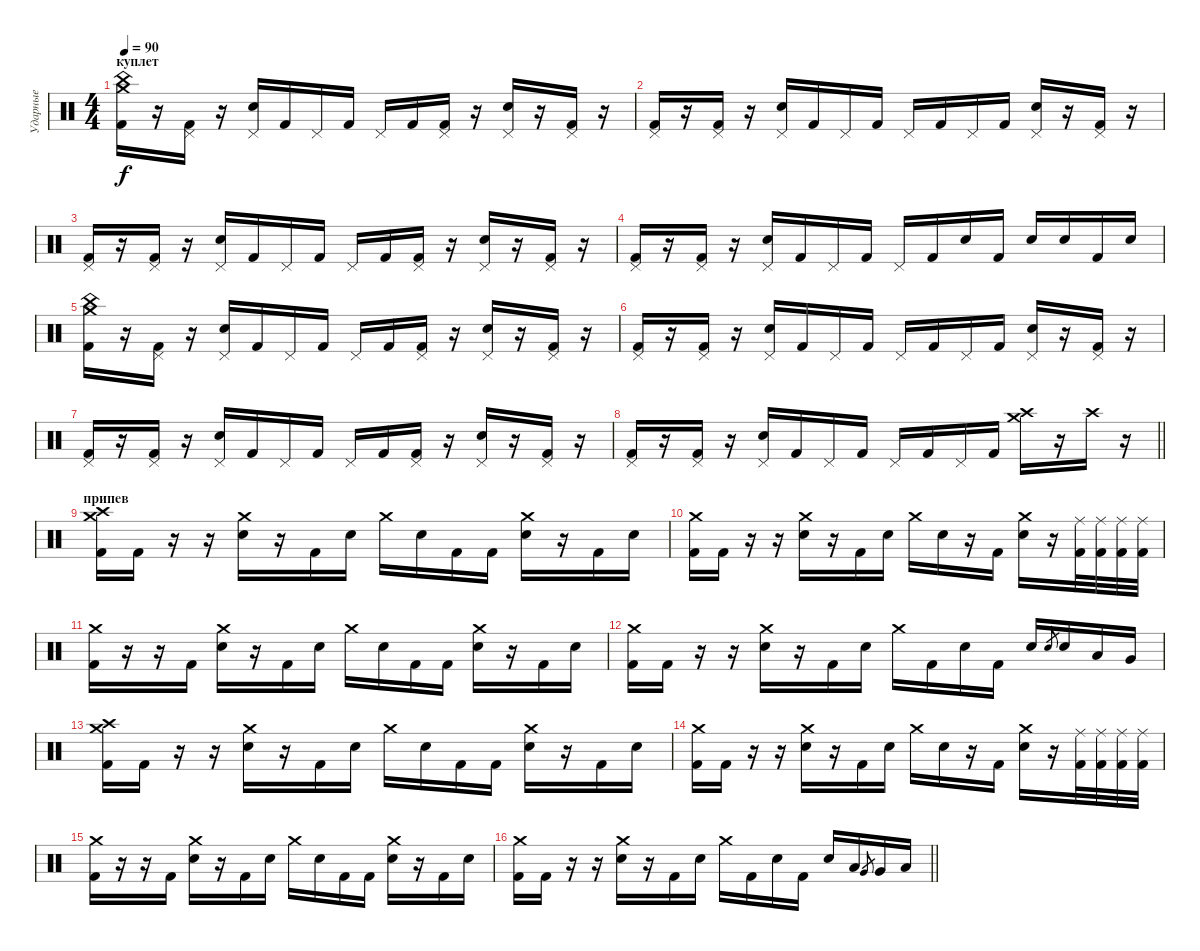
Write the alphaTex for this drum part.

\track ("Ударные" "Ударные") {instrument percussion}
\staff {score}
\articulation defaults
\ts (4 4)
\section ("" "куплет")
\tempo 90
\clef neutral
\ks c
("China (hit)" "Crash medium (hit)" "Kick (hit) 2").16{dy f} r.16 ("Pedal Hi-Hat (hit)" "Kick (hit) 2").16 r.16 ("Pedal Hi-Hat (hit)" "Snare (hit) 2").16 "Kick (hit) 2".16 "Pedal Hi-Hat (hit)".16 "Kick (hit) 2".16 "Pedal Hi-Hat (hit)".16 "Kick (hit) 2".16 ("Pedal Hi-Hat (hit)" "Kick (hit) 2").16 r.16 ("Pedal Hi-Hat (hit)" "Snare (hit) 2").16 r.16 ("Pedal Hi-Hat (hit)" "Kick (hit) 2").16 r.16 |
("Pedal Hi-Hat (hit)" "Kick (hit) 2").16 r.16 ("Pedal Hi-Hat (hit)" "Kick (hit) 2").16 r.16 ("Pedal Hi-Hat (hit)" "Snare (hit) 2").16 "Kick (hit) 2".16 "Pedal Hi-Hat (hit)".16 "Kick (hit) 2".16 "Pedal Hi-Hat (hit)".16 "Kick (hit) 2".16 "Pedal Hi-Hat (hit)".16 "Kick (hit) 2".16 ("Pedal Hi-Hat (hit)" "Snare (hit) 2").16 r.16 ("Pedal Hi-Hat (hit)" "Kick (hit) 2").16 r.16 |
("Pedal Hi-Hat (hit)" "Kick (hit) 2").16 r.16 ("Pedal Hi-Hat (hit)" "Kick (hit) 2").16 r.16 ("Pedal Hi-Hat (hit)" "Snare (hit) 2").16 "Kick (hit) 2".16 "Pedal Hi-Hat (hit)".16 "Kick (hit) 2".16 "Pedal Hi-Hat (hit)".16 "Kick (hit) 2".16 ("Pedal Hi-Hat (hit)" "Kick (hit) 2").16 r.16 ("Pedal Hi-Hat (hit)" "Snare (hit) 2").16 r.16 ("Pedal Hi-Hat (hit)" "Kick (hit) 2").16 r.16 |
("Pedal Hi-Hat (hit)" "Kick (hit) 2").16 r.16 ("Pedal Hi-Hat (hit)" "Kick (hit) 2").16 r.16 ("Pedal Hi-Hat (hit)" "Snare (hit) 2").16 "Kick (hit) 2".16 "Pedal Hi-Hat (hit)".16 "Kick (hit) 2".16 "Pedal Hi-Hat (hit)".16 "Kick (hit) 2".16 "Snare (hit) 2".16 "Kick (hit) 2".16 "Snare (hit) 2".16 "Snare (hit) 2".16 "Kick (hit) 2".16 "Snare (hit) 2".16 |
("China (hit)" "Crash medium (hit)" "Kick (hit) 2").16 r.16 ("Pedal Hi-Hat (hit)" "Kick (hit) 2").16 r.16 ("Pedal Hi-Hat (hit)" "Snare (hit) 2").16 "Kick (hit) 2".16 "Pedal Hi-Hat (hit)".16 "Kick (hit) 2".16 "Pedal Hi-Hat (hit)".16 "Kick (hit) 2".16 ("Pedal Hi-Hat (hit)" "Kick (hit) 2").16 r.16 ("Pedal Hi-Hat (hit)" "Snare (hit) 2").16 r.16 ("Pedal Hi-Hat (hit)" "Kick (hit) 2").16 r.16 |
("Pedal Hi-Hat (hit)" "Kick (hit) 2").16 r.16 ("Pedal Hi-Hat (hit)" "Kick (hit) 2").16 r.16 ("Pedal Hi-Hat (hit)" "Snare (hit) 2").16 "Kick (hit) 2".16 "Pedal Hi-Hat (hit)".16 "Kick (hit) 2".16 "Pedal Hi-Hat (hit)".16 "Kick (hit) 2".16 "Pedal Hi-Hat (hit)".16 "Kick (hit) 2".16 ("Pedal Hi-Hat (hit)" "Snare (hit) 2").16 r.16 ("Pedal Hi-Hat (hit)" "Kick (hit) 2").16 r.16 |
("Pedal Hi-Hat (hit)" "Kick (hit) 2").16 r.16 ("Pedal Hi-Hat (hit)" "Kick (hit) 2").16 r.16 ("Pedal Hi-Hat (hit)" "Snare (hit) 2").16 "Kick (hit) 2".16 "Pedal Hi-Hat (hit)".16 "Kick (hit) 2".16 "Pedal Hi-Hat (hit)".16 "Kick (hit) 2".16 ("Pedal Hi-Hat (hit)" "Kick (hit) 2").16 r.16 ("Pedal Hi-Hat (hit)" "Snare (hit) 2").16 r.16 ("Pedal Hi-Hat (hit)" "Kick (hit) 2").16 r.16 |
\barLineRight lightlight
("Pedal Hi-Hat (hit)" "Kick (hit) 2").16 r.16 ("Pedal Hi-Hat (hit)" "Kick (hit) 2").16 r.16 ("Pedal Hi-Hat (hit)" "Snare (hit) 2").16 "Kick (hit) 2".16 "Pedal Hi-Hat (hit)".16 "Kick (hit) 2".16 "Pedal Hi-Hat (hit)".16 "Kick (hit) 2".16 "Pedal Hi-Hat (hit)".16 "Kick (hit) 2".16 ("Crash high (hit)" "Crash medium (hit)").16 r.16 "Crash high (hit)".16 r.16 |
\section ("" "припев")
("Crash medium (hit)" "Crash high (hit)" "Kick (hit) 2").16 "Kick (hit) 2".16 r.16 r.16 ("Crash medium (hit)" "Snare (hit) 2").16 r.16 "Kick (hit) 2".16 "Snare (hit) 2".16 "Crash medium (hit)".16 "Snare (hit) 2".16 "Kick (hit) 2".16 "Kick (hit) 2".16 ("Crash medium (hit)" "Snare (hit) 2").16 r.16 "Kick (hit) 2".16 "Snare (hit) 2".16 |
("Crash medium (hit)" "Kick (hit) 2").16 "Kick (hit) 2".16 r.16 r.16 ("Crash medium (hit)" "Snare (hit) 2").16 r.16 "Kick (hit) 2".16 "Snare (hit) 2".16 "Crash medium (hit)".16 "Snare (hit) 2".16 r.16 "Kick (hit) 2".16 ("Crash medium (hit)" "Snare (hit) 2").16 r.16 ("Ride (middle)" "Kick (hit) 2").32 ("Ride (middle)" "Kick (hit) 2").32 ("Ride (middle)" "Kick (hit) 2").32 ("Ride (middle)" "Kick (hit) 2").32 |
("Crash medium (hit)" "Kick (hit) 2").16 r.16 r.16 "Kick (hit) 2".16 ("Crash medium (hit)" "Snare (hit) 2").16 r.16 "Kick (hit) 2".16 "Snare (hit) 2".16 "Crash medium (hit)".16 "Snare (hit) 2".16 "Kick (hit) 2".16 "Kick (hit) 2".16 ("Crash medium (hit)" "Snare (hit) 2").16 r.16 "Kick (hit) 2".16 "Snare (hit) 2".16 |
("Crash medium (hit)" "Kick (hit) 2").16 "Kick (hit) 2".16 r.16 r.16 ("Crash medium (hit)" "Snare (hit) 2").16 r.16 "Kick (hit) 2".16 "Snare (hit) 2".16 "Crash medium (hit)".16 "Kick (hit) 2".16 "Snare (hit) 2".16 "Kick (hit) 2".16 "Snare (hit) 2".16 "Snare (hit) 2".8{gr} "Snare (hit) 2".16 "Low Floor Tom (hit)".16 "Very Low Tom (hit)".16 |
("Crash medium (hit)" "Crash high (hit)" "Kick (hit) 2").16 "Kick (hit) 2".16 r.16 r.16 ("Crash medium (hit)" "Snare (hit) 2").16 r.16 "Kick (hit) 2".16 "Snare (hit) 2".16 "Crash medium (hit)".16 "Snare (hit) 2".16 "Kick (hit) 2".16 "Kick (hit) 2".16 ("Crash medium (hit)" "Snare (hit) 2").16 r.16 "Kick (hit) 2".16 "Snare (hit) 2".16 |
("Crash medium (hit)" "Kick (hit) 2").16 "Kick (hit) 2".16 r.16 r.16 ("Crash medium (hit)" "Snare (hit) 2").16 r.16 "Kick (hit) 2".16 "Snare (hit) 2".16 "Crash medium (hit)".16 "Snare (hit) 2".16 r.16 "Kick (hit) 2".16 ("Crash medium (hit)" "Snare (hit) 2").16 r.16 ("Ride (middle)" "Kick (hit) 2").32 ("Ride (middle)" "Kick (hit) 2").32 ("Ride (middle)" "Kick (hit) 2").32 ("Ride (middle)" "Kick (hit) 2").32 |
("Crash medium (hit)" "Kick (hit) 2").16 r.16 r.16 "Kick (hit) 2".16 ("Crash medium (hit)" "Snare (hit) 2").16 r.16 "Kick (hit) 2".16 "Snare (hit) 2".16 "Crash medium (hit)".16 "Snare (hit) 2".16 "Kick (hit) 2".16 "Kick (hit) 2".16 ("Crash medium (hit)" "Snare (hit) 2").16 r.16 "Kick (hit) 2".16 "Snare (hit) 2".16 |
\barLineRight lightlight
("Crash medium (hit)" "Kick (hit) 2").16 "Kick (hit) 2".16 r.16 r.16 ("Crash medium (hit)" "Snare (hit) 2").16 r.16 "Kick (hit) 2".16 "Snare (hit) 2".16 "Crash medium (hit)".16 "Kick (hit) 2".16 "Snare (hit) 2".16 "Kick (hit) 2".16 "Snare (hit) 2".16 "Low Floor Tom (hit)".16 "Very Low Tom (hit)".8{gr} "Very Low Tom (hit)".16 "Low Tom (hit)".16
